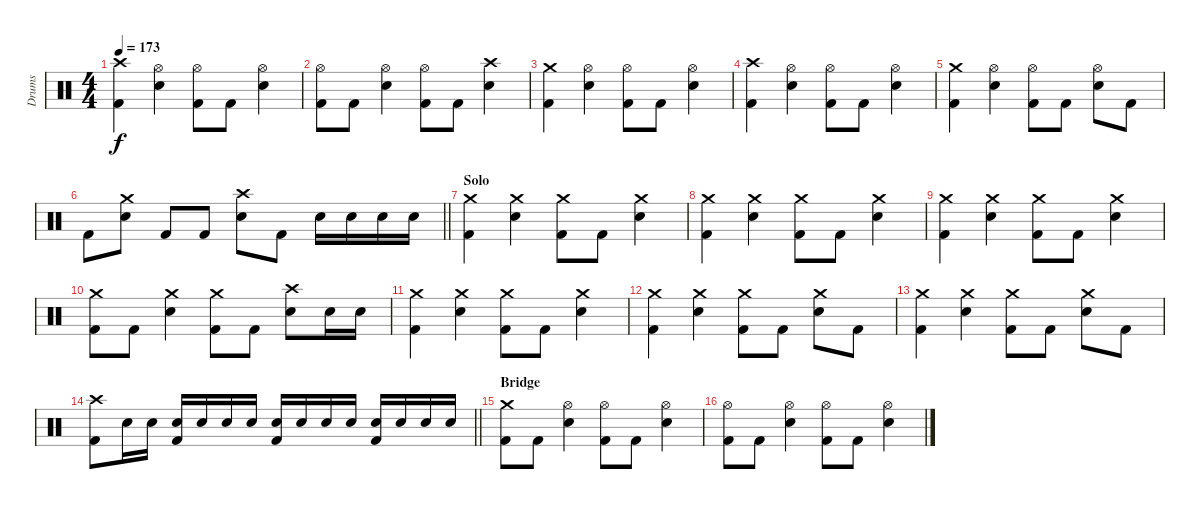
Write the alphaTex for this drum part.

\track ("Drums" "Drums") {instrument percussion}
\staff {score}
\articulation defaults
\ts (4 4)
\tempo 173
\clef neutral
\ks c
("Crash high (hit)" "Kick (hit) 2").4{dy f} ("Hi-Hat (open)" "Electric Snare (hit)").4 ("Hi-Hat (open)" "Kick (hit) 2").8 "Kick (hit) 2".8 ("Hi-Hat (open)" "Electric Snare (hit)").4 |
("Hi-Hat (open)" "Kick (hit) 2").8 "Kick (hit) 2".8 ("Hi-Hat (open)" "Electric Snare (hit)").4 ("Hi-Hat (open)" "Kick (hit) 2").8 "Kick (hit) 2".8 ("Crash high (hit)" "Electric Snare (hit)").4 |
("Crash medium (hit)" "Kick (hit) 2").4 ("Hi-Hat (open)" "Electric Snare (hit)").4 ("Hi-Hat (open)" "Kick (hit) 2").8 "Kick (hit) 2".8 ("Hi-Hat (open)" "Electric Snare (hit)").4 |
("Crash high (hit)" "Kick (hit) 2").4 ("Hi-Hat (open)" "Electric Snare (hit)").4 ("Hi-Hat (open)" "Kick (hit) 2").8 "Kick (hit) 2".8 ("Hi-Hat (open)" "Electric Snare (hit)").4 |
("Crash medium (hit)" "Kick (hit) 2").4 ("Hi-Hat (open)" "Electric Snare (hit)").4 ("Hi-Hat (open)" "Kick (hit) 2").8 "Kick (hit) 2".8 ("Hi-Hat (open)" "Electric Snare (hit)").8 "Kick (hit) 2".8 |
\barLineRight lightlight "Kick (hit) 2".8
("Crash medium (hit)" "Electric Snare (hit)").8 "Kick (hit) 2".8 "Kick (hit) 2".8 ("Crash high (hit)" "Electric Snare (hit)").8 "Kick (hit) 2".8 "Electric Snare (hit)".16 "Electric Snare (hit)".16 "Electric Snare (hit)".16 "Electric Snare (hit)".16 |
\section ("" "Solo")
("Crash medium (hit)" "Kick (hit) 2").4 ("Crash medium (hit)" "Electric Snare (hit)").4 ("Crash medium (hit)" "Kick (hit) 2").8 "Kick (hit) 2".8 ("Crash medium (hit)" "Electric Snare (hit)").4 |
("Crash medium (hit)" "Kick (hit) 2").4 ("Crash medium (hit)" "Electric Snare (hit)").4 ("Crash medium (hit)" "Kick (hit) 2").8 "Kick (hit) 2".8 ("Crash medium (hit)" "Electric Snare (hit)").4 |
("Crash medium (hit)" "Kick (hit) 2").4 ("Crash medium (hit)" "Electric Snare (hit)").4 ("Crash medium (hit)" "Kick (hit) 2").8 "Kick (hit) 2".8 ("Crash medium (hit)" "Electric Snare (hit)").4 |
("Crash medium (hit)" "Kick (hit) 2").8 "Kick (hit) 2".8 ("Crash medium (hit)" "Electric Snare (hit)").4 ("Crash medium (hit)" "Kick (hit) 2").8 "Kick (hit) 2".8 ("Crash high (hit)" "Electric Snare (hit)").8 "Electric Snare (hit)".16 "Electric Snare (hit)".16 |
("Crash medium (hit)" "Kick (hit) 2").4 ("Crash medium (hit)" "Electric Snare (hit)").4 ("Crash medium (hit)" "Kick (hit) 2").8 "Kick (hit) 2".8 ("Crash medium (hit)" "Electric Snare (hit)").4 |
("Crash medium (hit)" "Kick (hit) 2").4 ("Crash medium (hit)" "Electric Snare (hit)").4 ("Crash medium (hit)" "Kick (hit) 2").8 "Kick (hit) 2".8 ("Crash medium (hit)" "Electric Snare (hit)").8 "Kick (hit) 2".8 |
("Crash medium (hit)" "Kick (hit) 2").4 ("Crash medium (hit)" "Electric Snare (hit)").4 ("Crash medium (hit)" "Kick (hit) 2").8 "Kick (hit) 2".8 ("Crash medium (hit)" "Electric Snare (hit)").8 "Kick (hit) 2".8 |
\barLineRight lightlight
("Crash high (hit)" "Kick (hit) 2").8 "Electric Snare (hit)".16 "Electric Snare (hit)".16 ("Electric Snare (hit)" "Kick (hit) 2").16 "Electric Snare (hit)".16 "Electric Snare (hit)".16 "Electric Snare (hit)".16 ("Electric Snare (hit)" "Kick (hit) 2").16 "Electric Snare (hit)".16 "Electric Snare (hit)".16 "Electric Snare (hit)".16 ("Electric Snare (hit)" "Kick (hit) 2").16 "Electric Snare (hit)".16 "Electric Snare (hit)".16 "Electric Snare (hit)".16 |
\section ("" "Bridge")
("Crash medium (hit)" "Kick (hit) 2").8 "Kick (hit) 2".8 ("Hi-Hat (open)" "Electric Snare (hit)").4 ("Hi-Hat (open)" "Kick (hit) 2").8 "Kick (hit) 2".8 ("Hi-Hat (open)" "Electric Snare (hit)").4 |
("Hi-Hat (open)" "Kick (hit) 2").8 "Kick (hit) 2".8 ("Hi-Hat (open)" "Electric Snare (hit)").4 ("Hi-Hat (open)" "Kick (hit) 2").8 "Kick (hit) 2".8 ("Hi-Hat (open)" "Electric Snare (hit)").4
